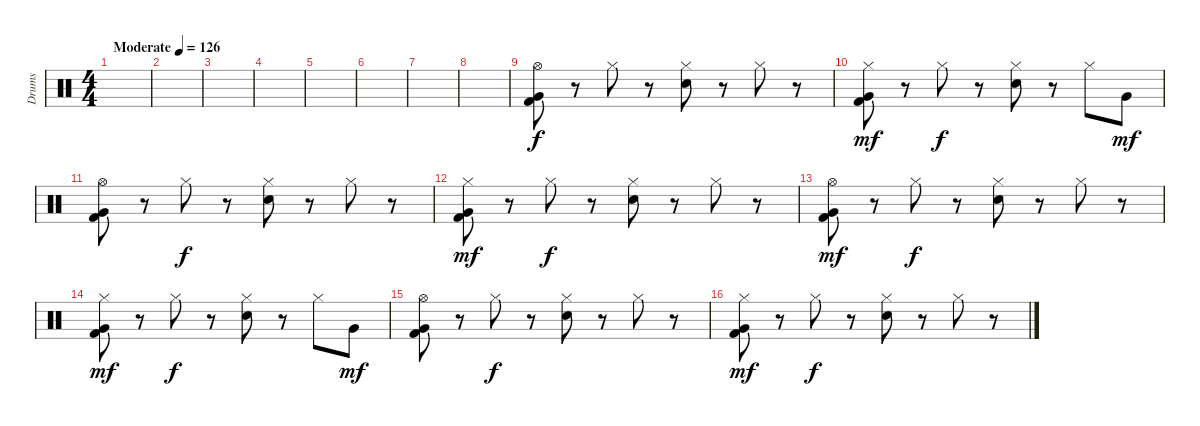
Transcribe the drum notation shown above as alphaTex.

\track ("Drums" "Drums") {instrument percussion}
\staff {score}
\articulation defaults
\ts (4 4)
\tempo (126 "Moderate")
\clef neutral
\ks c
|
|
|
|
|
|
|
|
("Hi-Hat (open)" "Very Low Tom (hit)" "Kick (hit) 2").8 r.8 "Hi-Hat (closed)".8{dy f} r.8 ("Hi-Hat (closed)" "Electric Snare (hit)").8 r.8 "Hi-Hat (closed)".8 r.8 |
("Hi-Hat (closed)" "Very Low Tom (hit)" "Kick (hit) 2").8{dy mf} r.8 "Hi-Hat (closed)".8{dy f} r.8 ("Hi-Hat (closed)" "Electric Snare (hit)").8 r.8 "Hi-Hat (closed)".8 "Very Low Tom (hit)".8{dy mf} |
("Hi-Hat (open)" "Very Low Tom (hit)" "Kick (hit) 2").8 r.8 "Hi-Hat (closed)".8{dy f} r.8 ("Hi-Hat (closed)" "Electric Snare (hit)").8 r.8 "Hi-Hat (closed)".8 r.8 |
("Hi-Hat (closed)" "Very Low Tom (hit)" "Kick (hit) 2").8{dy mf} r.8 "Hi-Hat (closed)".8{dy f} r.8 ("Hi-Hat (closed)" "Electric Snare (hit)").8 r.8 "Hi-Hat (closed)".8 r.8 |
("Hi-Hat (open)" "Very Low Tom (hit)" "Kick (hit) 2").8{dy mf} r.8 "Hi-Hat (closed)".8{dy f} r.8 ("Hi-Hat (closed)" "Electric Snare (hit)").8 r.8 "Hi-Hat (closed)".8 r.8 |
("Hi-Hat (closed)" "Very Low Tom (hit)" "Kick (hit) 2").8{dy mf} r.8 "Hi-Hat (closed)".8{dy f} r.8 ("Hi-Hat (closed)" "Electric Snare (hit)").8 r.8 "Hi-Hat (closed)".8 "Very Low Tom (hit)".8{dy mf} |
("Hi-Hat (open)" "Very Low Tom (hit)" "Kick (hit) 2").8 r.8 "Hi-Hat (closed)".8{dy f} r.8 ("Hi-Hat (closed)" "Electric Snare (hit)").8 r.8 "Hi-Hat (closed)".8 r.8 |
("Hi-Hat (closed)" "Very Low Tom (hit)" "Kick (hit) 2").8{dy mf} r.8 "Hi-Hat (closed)".8{dy f} r.8 ("Hi-Hat (closed)" "Electric Snare (hit)").8 r.8 "Hi-Hat (closed)".8 r.8
